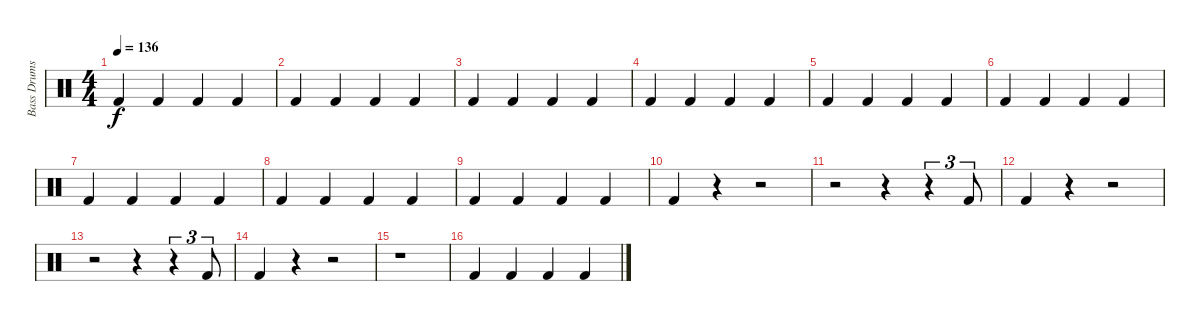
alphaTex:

\track ("Bass Drums" "Bass Drums") {instrument percussion}
\staff {score}
\articulation defaults
\ts (4 4)
\tempo 136
\clef neutral
\ks c "Kick (hit) 2".4{dy f} "Kick (hit) 2".4 "Kick (hit) 2".4 "Kick (hit) 2".4
|
"Kick (hit) 2".4 "Kick (hit) 2".4 "Kick (hit) 2".4 "Kick (hit) 2".4 |
"Kick (hit) 2".4 "Kick (hit) 2".4 "Kick (hit) 2".4 "Kick (hit) 2".4 |
"Kick (hit) 2".4 "Kick (hit) 2".4 "Kick (hit) 2".4 "Kick (hit) 2".4 |
"Kick (hit) 2".4 "Kick (hit) 2".4 "Kick (hit) 2".4 "Kick (hit) 2".4 |
"Kick (hit) 2".4 "Kick (hit) 2".4 "Kick (hit) 2".4 "Kick (hit) 2".4 |
"Kick (hit) 2".4 "Kick (hit) 2".4 "Kick (hit) 2".4 "Kick (hit) 2".4 |
"Kick (hit) 2".4 "Kick (hit) 2".4 "Kick (hit) 2".4 "Kick (hit) 2".4 |
"Kick (hit) 2".4 "Kick (hit) 2".4 "Kick (hit) 2".4 "Kick (hit) 2".4 |
"Kick (hit) 2".4 r.4 r.2 |
r.2 r.4 r.4{tu (3 2)} "Kick (hit) 2".8{tu (3 2)} |
"Kick (hit) 2".4 r.4 r.2 |
r.2 r.4 r.4{tu (3 2)} "Kick (hit) 2".8{tu (3 2)} |
"Kick (hit) 2".4 r.4 r.2 |
r.1 |
"Kick (hit) 2".4 "Kick (hit) 2".4 "Kick (hit) 2".4 "Kick (hit) 2".4
